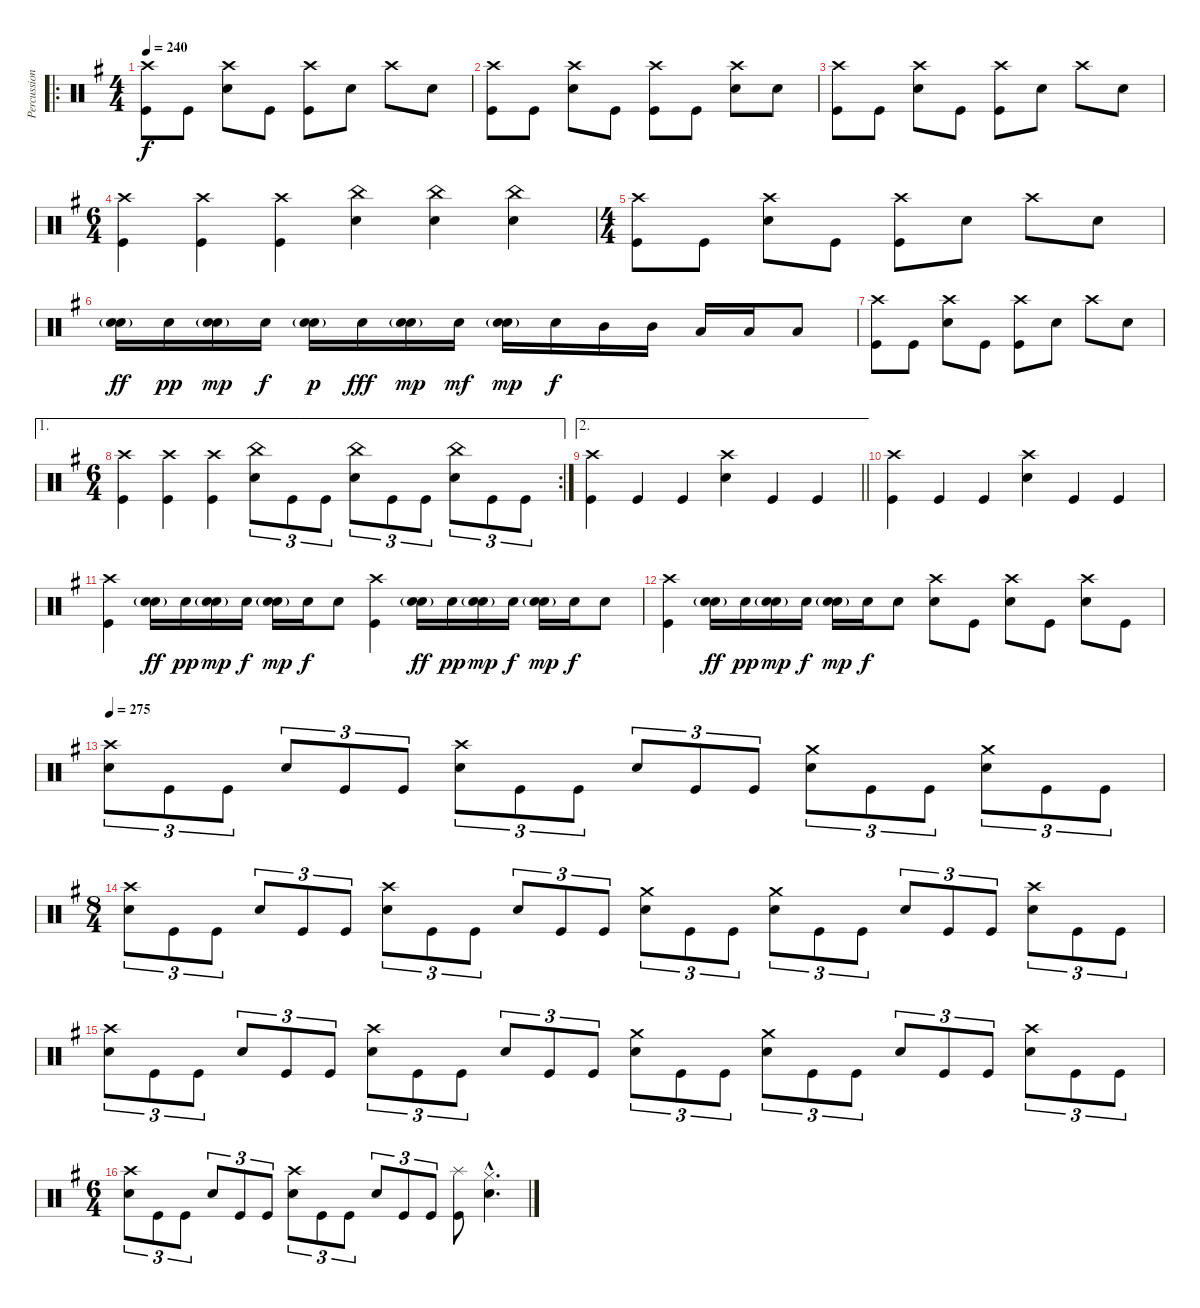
\track ("Percussion" "Percussion") {instrument percussion}
\staff {score}
\articulation defaults
\ro
\ts (4 4)
\tempo 255
\tempo 240
\clef neutral
\ks g
("Crash high (hit)" "Kick (hit)").8{dy f} "Kick (hit)".8 ("Crash high (hit)" "Electric Snare (hit)").8 "Kick (hit)".8 ("Crash high (hit)" "Kick (hit)").8 "Electric Snare (hit)".8 "Crash high (hit)".8 "Electric Snare (hit)".8 |
("Crash high (hit)" "Kick (hit)").8 "Kick (hit)".8 ("Crash high (hit)" "Electric Snare (hit)").8 "Kick (hit)".8 ("Crash high (hit)" "Kick (hit)").8 "Kick (hit)".8 ("Crash high (hit)" "Electric Snare (hit)").8 "Electric Snare (hit)".8 |
("Crash high (hit)" "Kick (hit)").8 "Kick (hit)".8 ("Crash high (hit)" "Electric Snare (hit)").8 "Kick (hit)".8 ("Crash high (hit)" "Kick (hit)").8 "Electric Snare (hit)".8 "Crash high (hit)".8 "Electric Snare (hit)".8 |
\ts (6 4)
("Crash high (hit)" "Kick (hit)").4 ("Crash high (hit)" "Kick (hit)").4 ("Crash high (hit)" "Kick (hit)").4 ("China (hit)" "Electric Snare (hit)").4 ("China (hit)" "Electric Snare (hit)").4 ("China (hit)" "Electric Snare (hit)").4 |
\ts (4 4)
("Crash high (hit)" "Kick (hit)").8 "Kick (hit)".8 ("Crash high (hit)" "Electric Snare (hit)").8 "Kick (hit)".8 ("Crash high (hit)" "Kick (hit)").8 "Electric Snare (hit)".8 "Crash high (hit)".8 "Electric Snare (hit)".8 |
("Snare (hit) 2"{g} "Electric Snare (hit)").16{dy ff} "Electric Snare (hit)".16{dy pp} ("Snare (hit) 2"{g} "Electric Snare (hit)").16{dy mp} "Electric Snare (hit)".16{dy f} ("Snare (hit) 2"{g} "Electric Snare (hit)").16{dy p} "Electric Snare (hit)".16{dy fff} ("Snare (hit) 2"{g} "Electric Snare (hit)").16{dy mp} "Electric Snare (hit)".16{dy mf} ("Snare (hit) 2"{g} "Electric Snare (hit)").16{dy mp} "Electric Snare (hit)".16{dy f} "Mid Tom (hit)".16 "Mid Tom (hit)".16 "Low Tom (hit)".16 "Low Tom (hit)".16 "Low Tom (hit)".8 |
("Crash high (hit)" "Kick (hit)").8 "Kick (hit)".8 ("Crash high (hit)" "Electric Snare (hit)").8 "Kick (hit)".8 ("Crash high (hit)" "Kick (hit)").8 "Electric Snare (hit)".8 "Crash high (hit)".8 "Electric Snare (hit)".8 |
\ae 1
\rc 2
\ts (6 4)
("Crash high (hit)" "Kick (hit)").4 ("Crash high (hit)" "Kick (hit)").4 ("Crash high (hit)" "Kick (hit)").4 ("China (hit)" "Electric Snare (hit)").8{tu (3 2)} "Kick (hit)".8{tu (3 2)} "Kick (hit)".8{tu (3 2)} ("China (hit)" "Electric Snare (hit)").8{tu (3 2)} "Kick (hit)".8{tu (3 2)} "Kick (hit)".8{tu (3 2)} ("China (hit)" "Electric Snare (hit)").8{tu (3 2)} "Kick (hit)".8{tu (3 2)} "Kick (hit)".8{tu (3 2)} |
\ae 2
\barLineRight lightlight
("Crash high (hit)" "Kick (hit)").4 "Kick (hit)".4 "Kick (hit)".4 ("Crash high (hit)" "Electric Snare (hit)").4 "Kick (hit)".4 "Kick (hit)".4 |
("Crash high (hit)" "Kick (hit)").4 "Kick (hit)".4 "Kick (hit)".4 ("Crash high (hit)" "Electric Snare (hit)").4 "Kick (hit)".4 "Kick (hit)".4 |
("Crash high (hit)" "Kick (hit)").4 ("Snare (hit) 2"{g} "Electric Snare (hit)").16{dy ff} "Electric Snare (hit)".16{dy pp} ("Snare (hit) 2"{g} "Electric Snare (hit)").16{dy mp} "Electric Snare (hit)".16{dy f} ("Snare (hit) 2"{g} "Electric Snare (hit)").16{dy mp} "Electric Snare (hit)".16{dy f} "Electric Snare (hit)".8 ("Crash high (hit)" "Kick (hit)").4 ("Snare (hit) 2"{g} "Electric Snare (hit)").16{dy ff} "Electric Snare (hit)".16{dy pp} ("Snare (hit) 2"{g} "Electric Snare (hit)").16{dy mp} "Electric Snare (hit)".16{dy f} ("Snare (hit) 2"{g} "Electric Snare (hit)").16{dy mp} "Electric Snare (hit)".16{dy f} "Electric Snare (hit)".8 |
("Crash high (hit)" "Kick (hit)").4 ("Snare (hit) 2"{g} "Electric Snare (hit)").16{dy ff} "Electric Snare (hit)".16{dy pp} ("Snare (hit) 2"{g} "Electric Snare (hit)").16{dy mp} "Electric Snare (hit)".16{dy f} ("Snare (hit) 2"{g} "Electric Snare (hit)").16{dy mp} "Electric Snare (hit)".16{dy f} "Electric Snare (hit)".8 ("Crash high (hit)" "Electric Snare (hit)").8 "Kick (hit)".8 ("Crash high (hit)" "Electric Snare (hit)").8 "Kick (hit)".8 ("Crash high (hit)" "Electric Snare (hit)").8 "Kick (hit)".8 |
\tempo 275
("Crash high (hit)" "Electric Snare (hit)").8{tu (3 2)} "Kick (hit)".8{tu (3 2)} "Kick (hit)".8{tu (3 2)} "Electric Snare (hit)".8{tu (3 2)} "Kick (hit)".8{tu (3 2)} "Kick (hit)".8{tu (3 2)} ("Crash high (hit)" "Electric Snare (hit)").8{tu (3 2)} "Kick (hit)".8{tu (3 2)} "Kick (hit)".8{tu (3 2)} "Electric Snare (hit)".8{tu (3 2)} "Kick (hit)".8{tu (3 2)} "Kick (hit)".8{tu (3 2)} ("Crash medium (hit)" "Electric Snare (hit)").8{tu (3 2)} "Kick (hit)".8{tu (3 2)} "Kick (hit)".8{tu (3 2)} ("Crash medium (hit)" "Electric Snare (hit)").8{tu (3 2)} "Kick (hit)".8{tu (3 2)} "Kick (hit)".8{tu (3 2)} |
\ts (8 4)
("Crash high (hit)" "Electric Snare (hit)").8{tu (3 2)} "Kick (hit)".8{tu (3 2)} "Kick (hit)".8{tu (3 2)} "Electric Snare (hit)".8{tu (3 2)} "Kick (hit)".8{tu (3 2)} "Kick (hit)".8{tu (3 2)} ("Crash high (hit)" "Electric Snare (hit)").8{tu (3 2)} "Kick (hit)".8{tu (3 2)} "Kick (hit)".8{tu (3 2)} "Electric Snare (hit)".8{tu (3 2)} "Kick (hit)".8{tu (3 2)} "Kick (hit)".8{tu (3 2)} ("Crash medium (hit)" "Electric Snare (hit)").8{tu (3 2)} "Kick (hit)".8{tu (3 2)} "Kick (hit)".8{tu (3 2)} ("Crash medium (hit)" "Electric Snare (hit)").8{tu (3 2)} "Kick (hit)".8{tu (3 2)} "Kick (hit)".8{tu (3 2)} "Electric Snare (hit)".8{tu (3 2)} "Kick (hit)".8{tu (3 2)} "Kick (hit)".8{tu (3 2)} ("Crash high (hit)" "Electric Snare (hit)").8{tu (3 2)} "Kick (hit)".8{tu (3 2)} "Kick (hit)".8{tu (3 2)} |
("Crash high (hit)" "Electric Snare (hit)").8{tu (3 2)} "Kick (hit)".8{tu (3 2)} "Kick (hit)".8{tu (3 2)} "Electric Snare (hit)".8{tu (3 2)} "Kick (hit)".8{tu (3 2)} "Kick (hit)".8{tu (3 2)} ("Crash high (hit)" "Electric Snare (hit)").8{tu (3 2)} "Kick (hit)".8{tu (3 2)} "Kick (hit)".8{tu (3 2)} "Electric Snare (hit)".8{tu (3 2)} "Kick (hit)".8{tu (3 2)} "Kick (hit)".8{tu (3 2)} ("Crash medium (hit)" "Electric Snare (hit)").8{tu (3 2)} "Kick (hit)".8{tu (3 2)} "Kick (hit)".8{tu (3 2)} ("Crash medium (hit)" "Electric Snare (hit)").8{tu (3 2)} "Kick (hit)".8{tu (3 2)} "Kick (hit)".8{tu (3 2)} "Electric Snare (hit)".8{tu (3 2)} "Kick (hit)".8{tu (3 2)} "Kick (hit)".8{tu (3 2)} ("Crash high (hit)" "Electric Snare (hit)").8{tu (3 2)} "Kick (hit)".8{tu (3 2)} "Kick (hit)".8{tu (3 2)} |
\ts (6 4)
("Crash high (hit)" "Electric Snare (hit)").8{tu (3 2)} "Kick (hit)".8{tu (3 2)} "Kick (hit)".8{tu (3 2)} "Electric Snare (hit)".8{tu (3 2)} "Kick (hit)".8{tu (3 2)} "Kick (hit)".8{tu (3 2)} ("Crash high (hit)" "Electric Snare (hit)").8{tu (3 2)} "Kick (hit)".8{tu (3 2)} "Kick (hit)".8{tu (3 2)} "Electric Snare (hit)".8{tu (3 2)} "Kick (hit)".8{tu (3 2)} "Kick (hit)".8{tu (3 2)} ("Splash (hit)" "Kick (hit)").8 ("Hi-Hat (closed)"{hac} "Electric Snare (hit)"{hac}).4{d}
